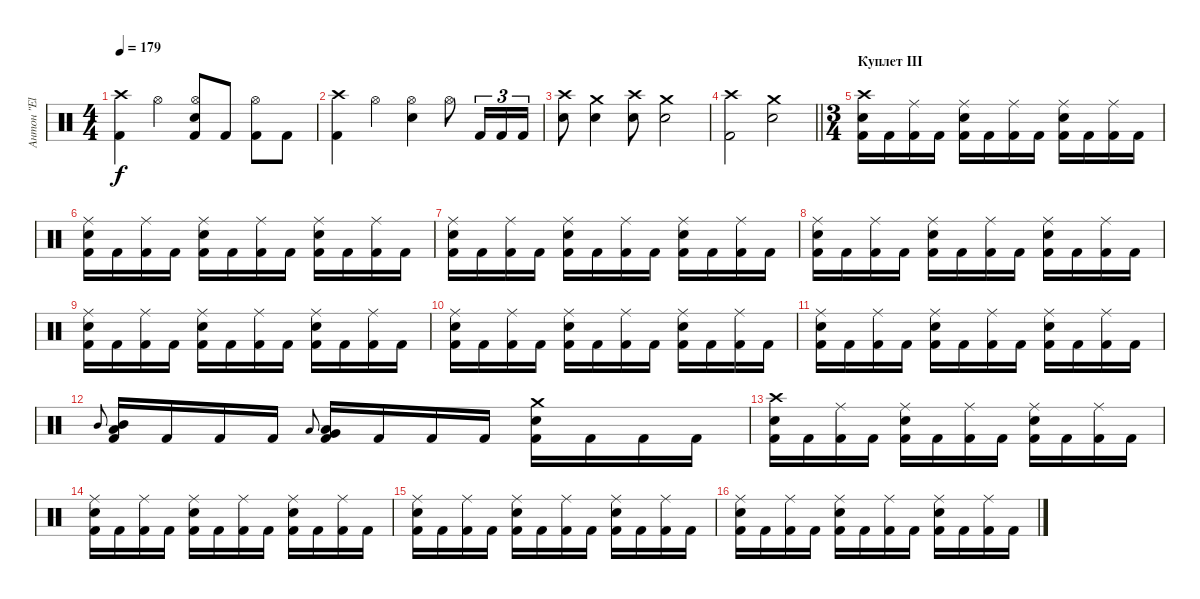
\track ("Антон \"El Bastardo\" Смольянин" "Антон \"El ") {instrument percussion}
\staff {score}
\articulation defaults
\ts (4 4)
\tempo 179
\clef neutral
\ks c
("Crash high (hit)" "Kick (hit) 2").4{dy f} "Hi-Hat (open)".4 ("Hi-Hat (open)" "Electric Snare (hit)" "Kick (hit) 2").8 "Kick (hit) 2".8 ("Hi-Hat (open)" "Kick (hit) 2").8 "Kick (hit) 2".8 |
("Crash high (hit)" "Kick (hit) 2").4 "Hi-Hat (open)".4 ("Hi-Hat (open)" "Electric Snare (hit)").4 "Hi-Hat (open)".8 "Kick (hit) 2".16{tu (3 2)} "Kick (hit) 2".16{tu (3 2)} "Kick (hit) 2".16{tu (3 2)} |
("Crash high (hit)" "Electric Snare (hit)").8 ("Crash medium (hit)" "Electric Snare (hit)").4 ("Crash high (hit)" "Electric Snare (hit)").8 ("Crash medium (hit)" "Electric Snare (hit)").2 |
\barLineRight lightlight
("Crash high (hit)" "Kick (hit) 2").2 ("Crash medium (hit)" "Electric Snare (hit)").2 |
\ts (3 4)
\section ("" "Куплет III")
("Crash high (hit)" "Electric Snare (hit)" "Kick (hit) 2").16 "Kick (hit) 2".16 ("Ride (middle)" "Kick (hit) 2").16 "Kick (hit) 2".16 ("Ride (middle)" "Electric Snare (hit)" "Kick (hit) 2").16 "Kick (hit) 2".16 ("Ride (middle)" "Kick (hit) 2").16 "Kick (hit) 2".16 ("Ride (middle)" "Electric Snare (hit)" "Kick (hit) 2").16 "Kick (hit) 2".16 ("Ride (middle)" "Kick (hit) 2").16 "Kick (hit) 2".16 |
("Ride (middle)" "Electric Snare (hit)" "Kick (hit) 2").16 "Kick (hit) 2".16 ("Ride (middle)" "Kick (hit) 2").16 "Kick (hit) 2".16 ("Ride (middle)" "Electric Snare (hit)" "Kick (hit) 2").16 "Kick (hit) 2".16 ("Ride (middle)" "Kick (hit) 2").16 "Kick (hit) 2".16 ("Ride (middle)" "Electric Snare (hit)" "Kick (hit) 2").16 "Kick (hit) 2".16 ("Ride (middle)" "Kick (hit) 2").16 "Kick (hit) 2".16 |
("Ride (middle)" "Electric Snare (hit)" "Kick (hit) 2").16 "Kick (hit) 2".16 ("Ride (middle)" "Kick (hit) 2").16 "Kick (hit) 2".16 ("Ride (middle)" "Electric Snare (hit)" "Kick (hit) 2").16 "Kick (hit) 2".16 ("Ride (middle)" "Kick (hit) 2").16 "Kick (hit) 2".16 ("Ride (middle)" "Electric Snare (hit)" "Kick (hit) 2").16 "Kick (hit) 2".16 ("Ride (middle)" "Kick (hit) 2").16 "Kick (hit) 2".16 |
("Ride (middle)" "Electric Snare (hit)" "Kick (hit) 2").16 "Kick (hit) 2".16 ("Ride (middle)" "Kick (hit) 2").16 "Kick (hit) 2".16 ("Ride (middle)" "Electric Snare (hit)" "Kick (hit) 2").16 "Kick (hit) 2".16 ("Ride (middle)" "Kick (hit) 2").16 "Kick (hit) 2".16 ("Ride (middle)" "Electric Snare (hit)" "Kick (hit) 2").16 "Kick (hit) 2".16 ("Ride (middle)" "Kick (hit) 2").16 "Kick (hit) 2".16 |
("Ride (middle)" "Electric Snare (hit)" "Kick (hit) 2").16 "Kick (hit) 2".16 ("Ride (middle)" "Kick (hit) 2").16 "Kick (hit) 2".16 ("Ride (middle)" "Electric Snare (hit)" "Kick (hit) 2").16 "Kick (hit) 2".16 ("Ride (middle)" "Kick (hit) 2").16 "Kick (hit) 2".16 ("Ride (middle)" "Electric Snare (hit)" "Kick (hit) 2").16 "Kick (hit) 2".16 ("Ride (middle)" "Kick (hit) 2").16 "Kick (hit) 2".16 |
("Ride (middle)" "Electric Snare (hit)" "Kick (hit) 2").16 "Kick (hit) 2".16 ("Ride (middle)" "Kick (hit) 2").16 "Kick (hit) 2".16 ("Ride (middle)" "Electric Snare (hit)" "Kick (hit) 2").16 "Kick (hit) 2".16 ("Ride (middle)" "Kick (hit) 2").16 "Kick (hit) 2".16 ("Ride (middle)" "Electric Snare (hit)" "Kick (hit) 2").16 "Kick (hit) 2".16 ("Ride (middle)" "Kick (hit) 2").16 "Kick (hit) 2".16 |
("Ride (middle)" "Electric Snare (hit)" "Kick (hit) 2").16 "Kick (hit) 2".16 ("Ride (middle)" "Kick (hit) 2").16 "Kick (hit) 2".16 ("Ride (middle)" "Electric Snare (hit)" "Kick (hit) 2").16 "Kick (hit) 2".16 ("Ride (middle)" "Kick (hit) 2").16 "Kick (hit) 2".16 ("Ride (middle)" "Electric Snare (hit)" "Kick (hit) 2").16 "Kick (hit) 2".16 ("Ride (middle)" "Kick (hit) 2").16 "Kick (hit) 2".16 |
"Mid Tom (hit)".8{gr onbeat} ("Mid Tom (hit)" "Low Tom (hit)" "Kick (hit) 2").16 "Kick (hit) 2".16 "Kick (hit) 2".16 "Kick (hit) 2".16 "Low Tom (hit)".8{gr onbeat} ("Low Tom (hit)" "Very Low Tom (hit)" "Kick (hit) 2").16 "Kick (hit) 2".16 "Kick (hit) 2".16 "Kick (hit) 2".16 ("Crash medium (hit)" "Electric Snare (hit)" "Kick (hit) 2").16 "Kick (hit) 2".16 "Kick (hit) 2".16 "Kick (hit) 2".16 |
("Crash high (hit)" "Electric Snare (hit)" "Kick (hit) 2").16 "Kick (hit) 2".16 ("Ride (middle)" "Kick (hit) 2").16 "Kick (hit) 2".16 ("Ride (middle)" "Electric Snare (hit)" "Kick (hit) 2").16 "Kick (hit) 2".16 ("Ride (middle)" "Kick (hit) 2").16 "Kick (hit) 2".16 ("Ride (middle)" "Electric Snare (hit)" "Kick (hit) 2").16 "Kick (hit) 2".16 ("Ride (middle)" "Kick (hit) 2").16 "Kick (hit) 2".16 |
("Ride (middle)" "Electric Snare (hit)" "Kick (hit) 2").16 "Kick (hit) 2".16 ("Ride (middle)" "Kick (hit) 2").16 "Kick (hit) 2".16 ("Ride (middle)" "Electric Snare (hit)" "Kick (hit) 2").16 "Kick (hit) 2".16 ("Ride (middle)" "Kick (hit) 2").16 "Kick (hit) 2".16 ("Ride (middle)" "Electric Snare (hit)" "Kick (hit) 2").16 "Kick (hit) 2".16 ("Ride (middle)" "Kick (hit) 2").16 "Kick (hit) 2".16 |
("Ride (middle)" "Electric Snare (hit)" "Kick (hit) 2").16 "Kick (hit) 2".16 ("Ride (middle)" "Kick (hit) 2").16 "Kick (hit) 2".16 ("Ride (middle)" "Electric Snare (hit)" "Kick (hit) 2").16 "Kick (hit) 2".16 ("Ride (middle)" "Kick (hit) 2").16 "Kick (hit) 2".16 ("Ride (middle)" "Electric Snare (hit)" "Kick (hit) 2").16 "Kick (hit) 2".16 ("Ride (middle)" "Kick (hit) 2").16 "Kick (hit) 2".16 |
("Ride (middle)" "Electric Snare (hit)" "Kick (hit) 2").16 "Kick (hit) 2".16 ("Ride (middle)" "Kick (hit) 2").16 "Kick (hit) 2".16 ("Ride (middle)" "Electric Snare (hit)" "Kick (hit) 2").16 "Kick (hit) 2".16 ("Ride (middle)" "Kick (hit) 2").16 "Kick (hit) 2".16 ("Ride (middle)" "Electric Snare (hit)" "Kick (hit) 2").16 "Kick (hit) 2".16 ("Ride (middle)" "Kick (hit) 2").16 "Kick (hit) 2".16
